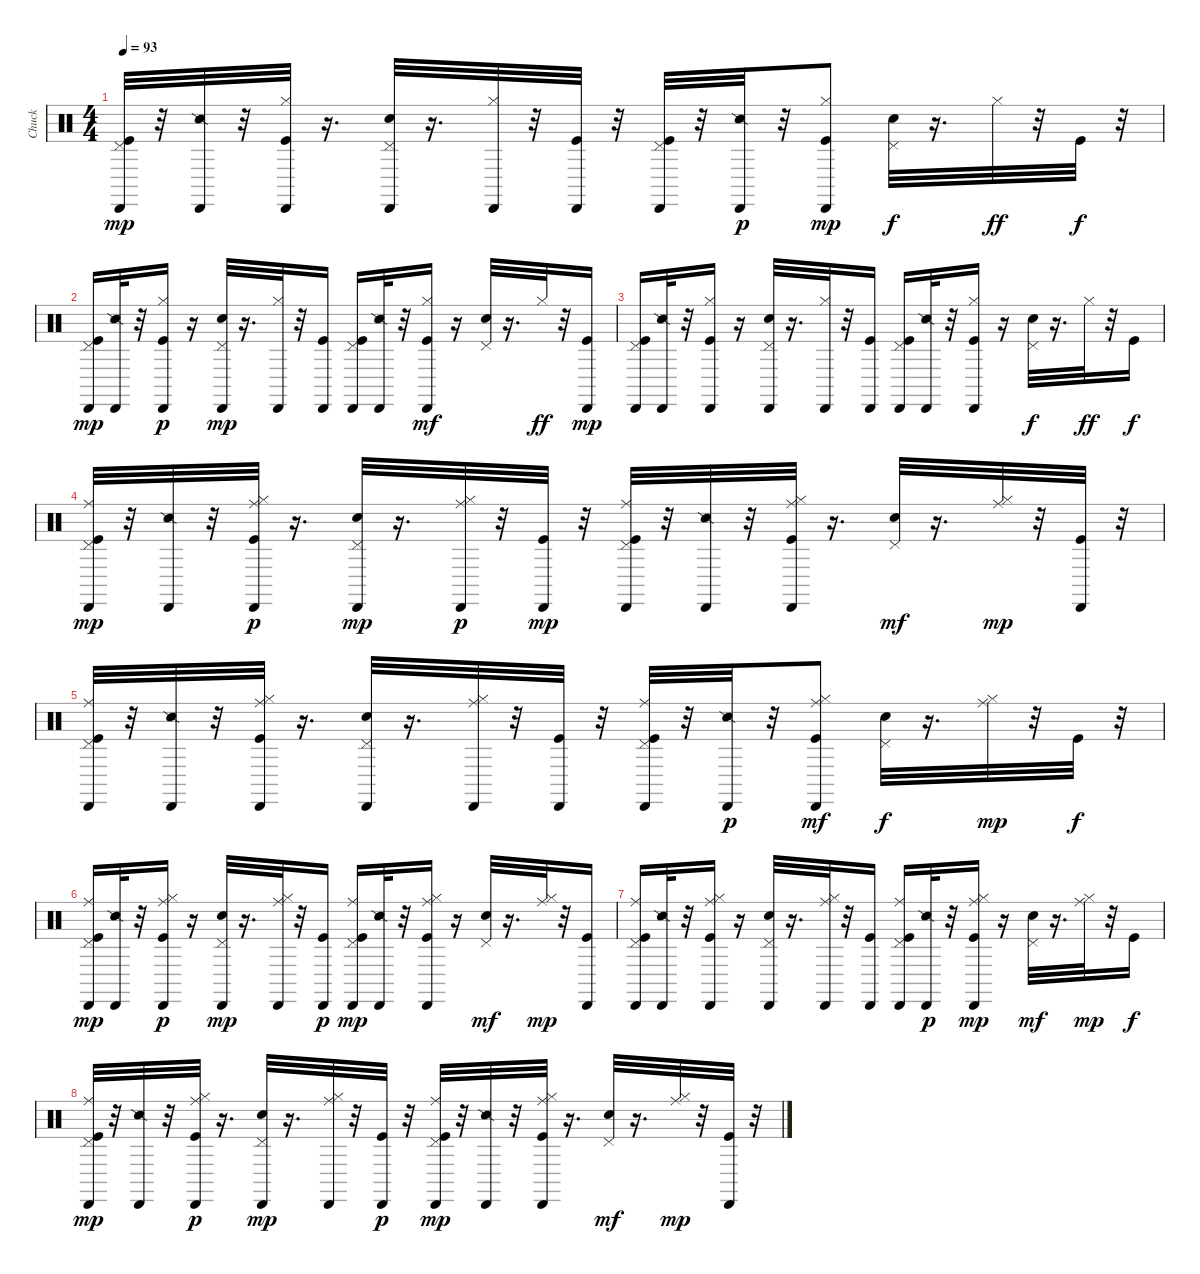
\track ("Chuck" "Chuck") {instrument percussion}
\staff {score}
\articulation defaults
\ts (4 4)
\tempo 93
\clef neutral
\ks c
("Kick (hit)" "Pedal Hi-Hat (hit)" "Cabasa (hit)").32{dy mp} r.32 ("Snare (side stick) 2" "Cabasa (hit)").32 r.32 ("Kick (hit)" "Hi-Hat (closed)" "Cabasa (hit)").32 r.16{d} ("Electric Snare (hit)" "Pedal Hi-Hat (hit)" "Cabasa (hit)").32 r.16{d} ("Hi-Hat (closed)" "Cabasa (hit)").32 r.32 ("Kick (hit)" "Cabasa (hit)").32 r.32 ("Kick (hit)" "Pedal Hi-Hat (hit)" "Cabasa (hit)").32 r.32 ("Snare (side stick) 2" "Cabasa (hit)").32{dy p} r.32 ("Kick (hit)" "Hi-Hat (closed)" "Cabasa (hit)").8{dy mp} ("Electric Snare (hit)" "Pedal Hi-Hat (hit)").32{dy f} r.16{d} "Hi-Hat (closed)".32{dy ff} r.32 "Kick (hit)".32{dy f} r.32 |
("Kick (hit)" "Pedal Hi-Hat (hit)" "Cabasa (hit)").16{dy mp} ("Snare (side stick) 2" "Cabasa (hit)").32 r.32 ("Kick (hit)" "Hi-Hat (closed)" "Cabasa (hit)").16{dy p} r.16 ("Electric Snare (hit)" "Pedal Hi-Hat (hit)" "Cabasa (hit)").32{dy mp} r.16{d} ("Hi-Hat (closed)" "Cabasa (hit)").32 r.32 ("Kick (hit)" "Cabasa (hit)").16 ("Kick (hit)" "Pedal Hi-Hat (hit)" "Cabasa (hit)").16 ("Snare (side stick) 2" "Cabasa (hit)").32 r.32 ("Kick (hit)" "Hi-Hat (closed)" "Cabasa (hit)").16{dy mf} r.16 ("Electric Snare (hit)" "Pedal Hi-Hat (hit)").32 r.16{d} "Hi-Hat (closed)".32{dy ff} r.32 ("Kick (hit)" "Cabasa (hit)").16{dy mp} |
("Kick (hit)" "Pedal Hi-Hat (hit)" "Cabasa (hit)").16 ("Snare (side stick) 2" "Cabasa (hit)").32 r.32 ("Kick (hit)" "Hi-Hat (closed)" "Cabasa (hit)").16 r.16 ("Electric Snare (hit)" "Pedal Hi-Hat (hit)" "Cabasa (hit)").32 r.16{d} ("Hi-Hat (closed)" "Cabasa (hit)").32 r.32 ("Kick (hit)" "Cabasa (hit)").16 ("Kick (hit)" "Pedal Hi-Hat (hit)" "Cabasa (hit)").16 ("Snare (side stick) 2" "Cabasa (hit)").32 r.32 ("Kick (hit)" "Hi-Hat (closed)" "Cabasa (hit)").16 r.16 ("Electric Snare (hit)" "Pedal Hi-Hat (hit)").32{dy f} r.16{d} "Hi-Hat (closed)".32{dy ff} r.32 "Kick (hit)".16{dy f} |
("Kick (hit)" "Pedal Hi-Hat (hit)" "Ride (middle)" "Cabasa (hit)").32{dy mp} r.32 ("Snare (side stick) 2" "Cabasa (hit)").32 r.32 ("Kick (hit)" "Hi-Hat (closed)" "Ride (middle)" "Cabasa (hit)").32{dy p} r.16{d} ("Electric Snare (hit)" "Pedal Hi-Hat (hit)" "Cabasa (hit)").32{dy mp} r.16{d} ("Hi-Hat (closed)" "Ride (middle)" "Cabasa (hit)").32{dy p} r.32 ("Kick (hit)" "Cabasa (hit)").32{dy mp} r.32 ("Kick (hit)" "Pedal Hi-Hat (hit)" "Ride (middle)" "Cabasa (hit)").32 r.32 ("Snare (side stick) 2" "Cabasa (hit)").32 r.32 ("Kick (hit)" "Hi-Hat (closed)" "Ride (middle)" "Cabasa (hit)").32 r.16{d} ("Electric Snare (hit)" "Pedal Hi-Hat (hit)").32{dy mf} r.16{d} ("Hi-Hat (closed)" "Ride (middle)").32{dy mp} r.32 ("Kick (hit)" "Cabasa (hit)").32 r.32 |
("Kick (hit)" "Pedal Hi-Hat (hit)" "Ride (middle)" "Cabasa (hit)").32 r.32 ("Snare (side stick) 2" "Cabasa (hit)").32 r.32 ("Kick (hit)" "Hi-Hat (closed)" "Ride (middle)" "Cabasa (hit)").32 r.16{d} ("Electric Snare (hit)" "Pedal Hi-Hat (hit)" "Cabasa (hit)").32 r.16{d} ("Hi-Hat (closed)" "Ride (middle)" "Cabasa (hit)").32 r.32 ("Kick (hit)" "Cabasa (hit)").32 r.32 ("Kick (hit)" "Pedal Hi-Hat (hit)" "Ride (middle)" "Cabasa (hit)").32 r.32 ("Snare (side stick) 2" "Cabasa (hit)").32{dy p} r.32 ("Kick (hit)" "Hi-Hat (closed)" "Ride (middle)" "Cabasa (hit)").8{dy mf} ("Electric Snare (hit)" "Pedal Hi-Hat (hit)").32{dy f} r.16{d} ("Hi-Hat (closed)" "Ride (middle)").32{dy mp} r.32 "Kick (hit)".32{dy f} r.32 |
("Kick (hit)" "Pedal Hi-Hat (hit)" "Ride (middle)" "Cabasa (hit)").16{dy mp} ("Snare (side stick) 2" "Cabasa (hit)").32 r.32 ("Kick (hit)" "Hi-Hat (closed)" "Ride (middle)" "Cabasa (hit)").16{dy p} r.16 ("Electric Snare (hit)" "Pedal Hi-Hat (hit)" "Cabasa (hit)").32{dy mp} r.16{d} ("Hi-Hat (closed)" "Ride (middle)" "Cabasa (hit)").32 r.32 ("Kick (hit)" "Cabasa (hit)").16{dy p} ("Kick (hit)" "Pedal Hi-Hat (hit)" "Ride (middle)" "Cabasa (hit)").16{dy mp} ("Snare (side stick) 2" "Cabasa (hit)").32 r.32 ("Kick (hit)" "Hi-Hat (closed)" "Ride (middle)" "Cabasa (hit)").16 r.16 ("Electric Snare (hit)" "Pedal Hi-Hat (hit)").32{dy mf} r.16{d} ("Hi-Hat (closed)" "Ride (middle)").32{dy mp} r.32 ("Kick (hit)" "Cabasa (hit)").16 |
("Kick (hit)" "Pedal Hi-Hat (hit)" "Ride (middle)" "Cabasa (hit)").16 ("Snare (side stick) 2" "Cabasa (hit)").32 r.32 ("Kick (hit)" "Hi-Hat (closed)" "Ride (middle)" "Cabasa (hit)").16 r.16 ("Electric Snare (hit)" "Pedal Hi-Hat (hit)" "Cabasa (hit)").32 r.16{d} ("Hi-Hat (closed)" "Ride (middle)" "Cabasa (hit)").32 r.32 ("Kick (hit)" "Cabasa (hit)").16 ("Kick (hit)" "Pedal Hi-Hat (hit)" "Ride (middle)" "Cabasa (hit)").16 ("Snare (side stick) 2" "Cabasa (hit)").32{dy p} r.32 ("Kick (hit)" "Hi-Hat (closed)" "Ride (middle)" "Cabasa (hit)").16{dy mp} r.16 ("Electric Snare (hit)" "Pedal Hi-Hat (hit)").32{dy mf} r.16{d} ("Hi-Hat (closed)" "Ride (middle)").32{dy mp} r.32 "Kick (hit)".16{dy f} |
("Kick (hit)" "Pedal Hi-Hat (hit)" "Ride (middle)" "Cabasa (hit)").32{dy mp} r.32 ("Snare (side stick) 2" "Cabasa (hit)").32 r.32 ("Kick (hit)" "Hi-Hat (closed)" "Ride (middle)" "Cabasa (hit)").32{dy p} r.16{d} ("Electric Snare (hit)" "Pedal Hi-Hat (hit)" "Cabasa (hit)").32{dy mp} r.16{d} ("Hi-Hat (closed)" "Ride (middle)" "Cabasa (hit)").32 r.32 ("Kick (hit)" "Cabasa (hit)").32{dy p} r.32 ("Kick (hit)" "Pedal Hi-Hat (hit)" "Ride (middle)" "Cabasa (hit)").32{dy mp} r.32 ("Snare (side stick) 2" "Cabasa (hit)").32 r.32 ("Kick (hit)" "Hi-Hat (closed)" "Ride (middle)" "Cabasa (hit)").32 r.16{d} ("Electric Snare (hit)" "Pedal Hi-Hat (hit)").32{dy mf} r.16{d} ("Hi-Hat (closed)" "Ride (middle)").32{dy mp} r.32 ("Kick (hit)" "Cabasa (hit)").32 r.32
